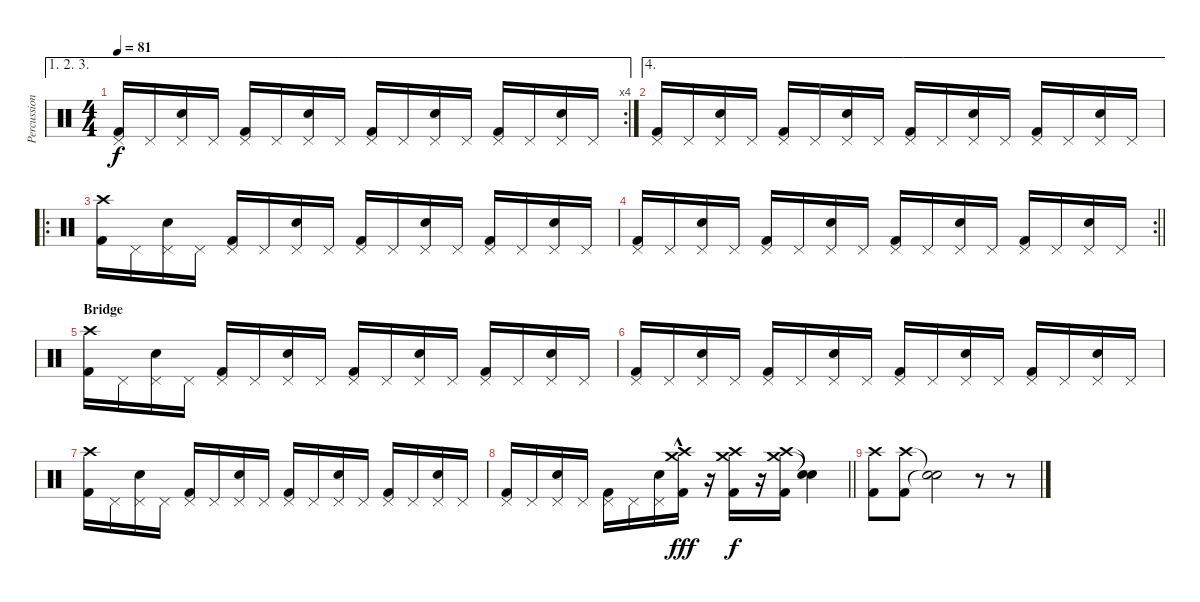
\track ("Percussion" "Percussion") {instrument percussion}
\staff {score}
\articulation defaults
\ae (1 2 3)
\rc 4
\ts (4 4)
\tempo 81
\clef neutral
\ks c
("Pedal Hi-Hat (hit)" "Kick (hit) 2").16{dy f} "Pedal Hi-Hat (hit)".16 ("Pedal Hi-Hat (hit)" "Electric Snare (hit)").16 "Pedal Hi-Hat (hit)".16 ("Pedal Hi-Hat (hit)" "Kick (hit) 2").16 "Pedal Hi-Hat (hit)".16 ("Pedal Hi-Hat (hit)" "Electric Snare (hit)").16 "Pedal Hi-Hat (hit)".16 ("Pedal Hi-Hat (hit)" "Kick (hit) 2").16 "Pedal Hi-Hat (hit)".16 ("Pedal Hi-Hat (hit)" "Electric Snare (hit)").16 "Pedal Hi-Hat (hit)".16 ("Pedal Hi-Hat (hit)" "Kick (hit) 2").16 "Pedal Hi-Hat (hit)".16 ("Pedal Hi-Hat (hit)" "Electric Snare (hit)").16 "Pedal Hi-Hat (hit)".16 |
\ae 4
("Pedal Hi-Hat (hit)" "Kick (hit) 2").16 "Pedal Hi-Hat (hit)".16 ("Pedal Hi-Hat (hit)" "Electric Snare (hit)").16 "Pedal Hi-Hat (hit)".16 ("Pedal Hi-Hat (hit)" "Kick (hit) 2").16 "Pedal Hi-Hat (hit)".16 ("Pedal Hi-Hat (hit)" "Electric Snare (hit)").16 "Pedal Hi-Hat (hit)".16 ("Pedal Hi-Hat (hit)" "Kick (hit) 2").16 "Pedal Hi-Hat (hit)".16 ("Pedal Hi-Hat (hit)" "Electric Snare (hit)").16 "Pedal Hi-Hat (hit)".16 ("Pedal Hi-Hat (hit)" "Kick (hit) 2").16 "Pedal Hi-Hat (hit)".16 ("Pedal Hi-Hat (hit)" "Electric Snare (hit)").16 "Pedal Hi-Hat (hit)".16 |
\ro
("Crash high (hit)" "Kick (hit) 2").16 "Pedal Hi-Hat (hit)".16 ("Pedal Hi-Hat (hit)" "Electric Snare (hit)").16 "Pedal Hi-Hat (hit)".16 ("Pedal Hi-Hat (hit)" "Kick (hit) 2").16 "Pedal Hi-Hat (hit)".16 ("Pedal Hi-Hat (hit)" "Electric Snare (hit)").16 "Pedal Hi-Hat (hit)".16 ("Pedal Hi-Hat (hit)" "Kick (hit) 2").16 "Pedal Hi-Hat (hit)".16 ("Pedal Hi-Hat (hit)" "Electric Snare (hit)").16 "Pedal Hi-Hat (hit)".16 ("Pedal Hi-Hat (hit)" "Kick (hit) 2").16 "Pedal Hi-Hat (hit)".16 ("Pedal Hi-Hat (hit)" "Electric Snare (hit)").16 "Pedal Hi-Hat (hit)".16 |
\rc 2
\barLineRight lightlight
("Pedal Hi-Hat (hit)" "Kick (hit) 2").16 "Pedal Hi-Hat (hit)".16 ("Pedal Hi-Hat (hit)" "Electric Snare (hit)").16 "Pedal Hi-Hat (hit)".16 ("Pedal Hi-Hat (hit)" "Kick (hit) 2").16 "Pedal Hi-Hat (hit)".16 ("Pedal Hi-Hat (hit)" "Electric Snare (hit)").16 "Pedal Hi-Hat (hit)".16 ("Pedal Hi-Hat (hit)" "Kick (hit) 2").16 "Pedal Hi-Hat (hit)".16 ("Pedal Hi-Hat (hit)" "Electric Snare (hit)").16 "Pedal Hi-Hat (hit)".16 ("Pedal Hi-Hat (hit)" "Kick (hit) 2").16 "Pedal Hi-Hat (hit)".16 ("Pedal Hi-Hat (hit)" "Electric Snare (hit)").16 "Pedal Hi-Hat (hit)".16 |
\section ("" "Bridge")
("Crash high (hit)" "Kick (hit) 2").16 "Pedal Hi-Hat (hit)".16 ("Pedal Hi-Hat (hit)" "Electric Snare (hit)").16 "Pedal Hi-Hat (hit)".16 ("Pedal Hi-Hat (hit)" "Kick (hit) 2").16 "Pedal Hi-Hat (hit)".16 ("Pedal Hi-Hat (hit)" "Electric Snare (hit)").16 "Pedal Hi-Hat (hit)".16 ("Pedal Hi-Hat (hit)" "Kick (hit) 2").16 "Pedal Hi-Hat (hit)".16 ("Pedal Hi-Hat (hit)" "Electric Snare (hit)").16 "Pedal Hi-Hat (hit)".16 ("Pedal Hi-Hat (hit)" "Kick (hit) 2").16 "Pedal Hi-Hat (hit)".16 ("Pedal Hi-Hat (hit)" "Electric Snare (hit)").16 "Pedal Hi-Hat (hit)".16 |
("Pedal Hi-Hat (hit)" "Kick (hit) 2").16 "Pedal Hi-Hat (hit)".16 ("Pedal Hi-Hat (hit)" "Electric Snare (hit)").16 "Pedal Hi-Hat (hit)".16 ("Pedal Hi-Hat (hit)" "Kick (hit) 2").16 "Pedal Hi-Hat (hit)".16 ("Pedal Hi-Hat (hit)" "Electric Snare (hit)").16 "Pedal Hi-Hat (hit)".16 ("Pedal Hi-Hat (hit)" "Kick (hit) 2").16 "Pedal Hi-Hat (hit)".16 ("Pedal Hi-Hat (hit)" "Electric Snare (hit)").16 "Pedal Hi-Hat (hit)".16 ("Pedal Hi-Hat (hit)" "Kick (hit) 2").16 "Pedal Hi-Hat (hit)".16 ("Pedal Hi-Hat (hit)" "Electric Snare (hit)").16 "Pedal Hi-Hat (hit)".16 |
("Crash high (hit)" "Kick (hit) 2").16 "Pedal Hi-Hat (hit)".16 ("Pedal Hi-Hat (hit)" "Electric Snare (hit)").16 "Pedal Hi-Hat (hit)".16 ("Pedal Hi-Hat (hit)" "Kick (hit) 2").16 "Pedal Hi-Hat (hit)".16 ("Pedal Hi-Hat (hit)" "Electric Snare (hit)").16 "Pedal Hi-Hat (hit)".16 ("Pedal Hi-Hat (hit)" "Kick (hit) 2").16 "Pedal Hi-Hat (hit)".16 ("Pedal Hi-Hat (hit)" "Electric Snare (hit)").16 "Pedal Hi-Hat (hit)".16 ("Pedal Hi-Hat (hit)" "Kick (hit) 2").16 "Pedal Hi-Hat (hit)".16 ("Pedal Hi-Hat (hit)" "Electric Snare (hit)").16 "Pedal Hi-Hat (hit)".16 |
\barLineRight lightlight
("Pedal Hi-Hat (hit)" "Kick (hit) 2").16 "Pedal Hi-Hat (hit)".16 ("Pedal Hi-Hat (hit)" "Electric Snare (hit)").16 "Pedal Hi-Hat (hit)".16 ("Pedal Hi-Hat (hit)" "Kick (hit) 2").16 "Pedal Hi-Hat (hit)".16 ("Pedal Hi-Hat (hit)" "Electric Snare (hit)").16 ("Crash high (hit)"{hac} "Crash medium (hit)" "Kick (hit) 2").16{dy fff} r.16 ("Crash high (hit)" "Crash medium (hit)" "Kick (hit) 2").16{dy f} r.16 ("Crash high (hit)" "Crash medium (hit)" "Kick (hit) 2").16 ("Snare (hit)"{t} "Snare (hit)"{t}).4 |
("Crash high (hit)" "Kick (hit) 2").8 ("Crash high (hit)" "Kick (hit) 2").8 ("Snare (hit)"{t} "Snare (hit)"{t}).2 r.8 r.8
